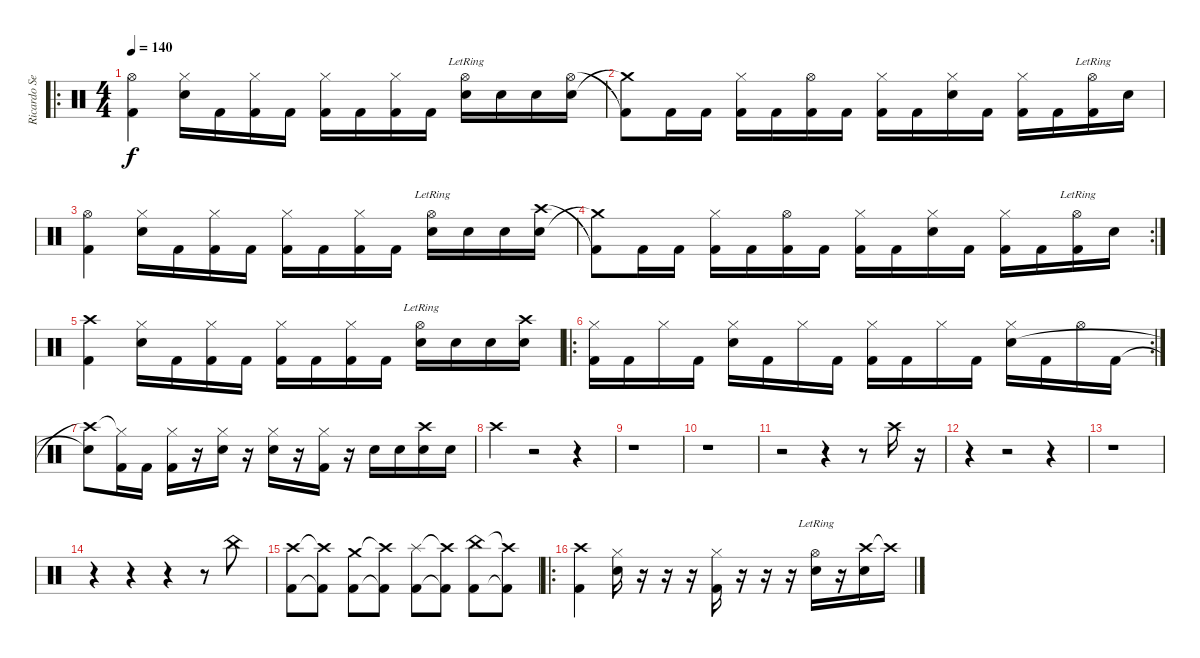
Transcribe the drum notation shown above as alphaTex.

\track ("Ricardo Severino" "Ricardo Se") {instrument percussion}
\staff {score}
\articulation defaults
\ro
\ts (4 4)
\tempo 140
\clef neutral
\ks c
("Hi-Hat (open)" "Kick (hit) 2").4{dy f} ("Hi-Hat (closed)" "Snare (hit) 2").16 "Kick (hit) 2".16 ("Hi-Hat (closed)" "Kick (hit) 2").16 "Kick (hit) 2".16 ("Hi-Hat (closed)" "Kick (hit) 2").16 "Kick (hit) 2".16 ("Hi-Hat (closed)" "Kick (hit) 2").16 "Kick (hit) 2".16 ("Hi-Hat (open)"{lr} "Snare (hit) 2").16 "Snare (hit) 2".16 "Snare (hit) 2".16 ("Snare (hit) 2" "Hi-Hat (open)").16 |
("Crash medium (hit)"{t} "Kick (hit) 2"{t}).8 "Kick (hit) 2".16 "Kick (hit) 2".16 ("Hi-Hat (closed)" "Kick (hit) 2").16 "Kick (hit) 2".16 ("Hi-Hat (open)" "Kick (hit) 2").16 "Kick (hit) 2".16 ("Hi-Hat (closed)" "Kick (hit) 2").16 "Kick (hit) 2".16 ("Hi-Hat (closed)" "Snare (hit) 2").16 "Kick (hit) 2".16 ("Hi-Hat (closed)" "Kick (hit) 2").16 "Kick (hit) 2".16 ("Hi-Hat (open)"{lr} "Kick (hit) 2").16 "Snare (hit) 2".16 |
("Hi-Hat (open)" "Kick (hit) 2").4 ("Hi-Hat (closed)" "Snare (hit) 2").16 "Kick (hit) 2".16 ("Hi-Hat (closed)" "Kick (hit) 2").16 "Kick (hit) 2".16 ("Hi-Hat (closed)" "Kick (hit) 2").16 "Kick (hit) 2".16 ("Hi-Hat (closed)" "Kick (hit) 2").16 "Kick (hit) 2".16 ("Hi-Hat (open)"{lr} "Snare (hit) 2").16 "Snare (hit) 2".16 "Snare (hit) 2".16 ("Snare (hit) 2" "Crash high (hit)").16 |
\rc 2
("Crash medium (hit)"{t} "Kick (hit) 2"{t}).8 "Kick (hit) 2".16 "Kick (hit) 2".16 ("Hi-Hat (closed)" "Kick (hit) 2").16 "Kick (hit) 2".16 ("Hi-Hat (open)" "Kick (hit) 2").16 "Kick (hit) 2".16 ("Hi-Hat (closed)" "Kick (hit) 2").16 "Kick (hit) 2".16 ("Hi-Hat (closed)" "Snare (hit) 2").16 "Kick (hit) 2".16 ("Hi-Hat (closed)" "Kick (hit) 2").16 "Kick (hit) 2".16 ("Hi-Hat (open)"{lr} "Kick (hit) 2").16 "Snare (hit) 2".16 |
("Crash high (hit)" "Kick (hit) 2").4 ("Hi-Hat (closed)" "Snare (hit) 2").16 "Kick (hit) 2".16 ("Hi-Hat (closed)" "Kick (hit) 2").16 "Kick (hit) 2".16 ("Hi-Hat (closed)" "Kick (hit) 2").16 "Kick (hit) 2".16 ("Hi-Hat (closed)" "Kick (hit) 2").16 "Kick (hit) 2".16 ("Hi-Hat (open)"{lr} "Snare (hit) 2").16 "Snare (hit) 2".16 "Snare (hit) 2".16 ("Snare (hit) 2" "Crash high (hit)").16 |
\ro
\rc 2
("Hi-Hat (closed)" "Kick (hit) 2").16 "Kick (hit) 2".16 "Hi-Hat (closed)".16 "Kick (hit) 2".16 ("Hi-Hat (closed)" "Snare (hit) 2").16 "Kick (hit) 2".16 "Hi-Hat (closed)".16 "Kick (hit) 2".16 ("Hi-Hat (closed)" "Kick (hit) 2").16 "Kick (hit) 2".16 "Hi-Hat (closed)".16 "Kick (hit) 2".16 ("Hi-Hat (closed)" "Snare (hit) 2").16 "Kick (hit) 2".16 "Hi-Hat (open)".16 "Kick (hit) 2".16 |
("Crash high (hit)"{t} "Snare (hit) 2"{t}).8 ("Hi-Hat (closed)"{t} "Kick (hit) 2").16 "Kick (hit) 2".16 ("Hi-Hat (closed)" "Kick (hit) 2").16 r.16 ("Hi-Hat (closed)" "Snare (hit) 2").16 r.16 ("Hi-Hat (closed)" "Snare (hit) 2").16 r.16 ("Hi-Hat (closed)" "Kick (hit) 2").16 r.16 "Snare (hit) 2".16 "Snare (hit) 2".16 ("Crash high (hit)" "Snare (hit) 2").16 "Snare (hit) 2".16 |
"Crash high (hit)".4 r.2 r.4 |
r.1 |
r.1 |
r.2 r.4 r.8 "Crash high (hit)".16 r.16 |
r.4 r.2 r.4 |
r.1 |
r.4 r.4 r.4 r.8 "China (hit)".8 |
("Crash high (hit)" "Kick (hit) 2").8 ("Crash high (hit)"{t} "Kick (hit) 2"{t}).8 ("Crash medium (hit)" "Kick (hit) 2").8 ("Crash high (hit)"{t} "Kick (hit) 2"{t}).8 ("Splash (hit)" "Kick (hit) 2").8 ("Crash high (hit)"{t} "Kick (hit) 2"{t}).8 ("China (hit)" "Kick (hit) 2").8 ("Crash high (hit)"{t} "Kick (hit) 2"{t}).8 |
\ro
("Crash high (hit)" "Kick (hit) 2").4 ("Hi-Hat (closed)" "Snare (hit) 2").16 r.16 r.16 r.16 ("Hi-Hat (closed)" "Kick (hit) 2").16 r.16 r.16 r.16 ("Hi-Hat (open)"{lr} "Snare (hit) 2").16 r.16 ("Crash high (hit)" "Snare (hit) 2").16 "Crash high (hit)"{t}.16
